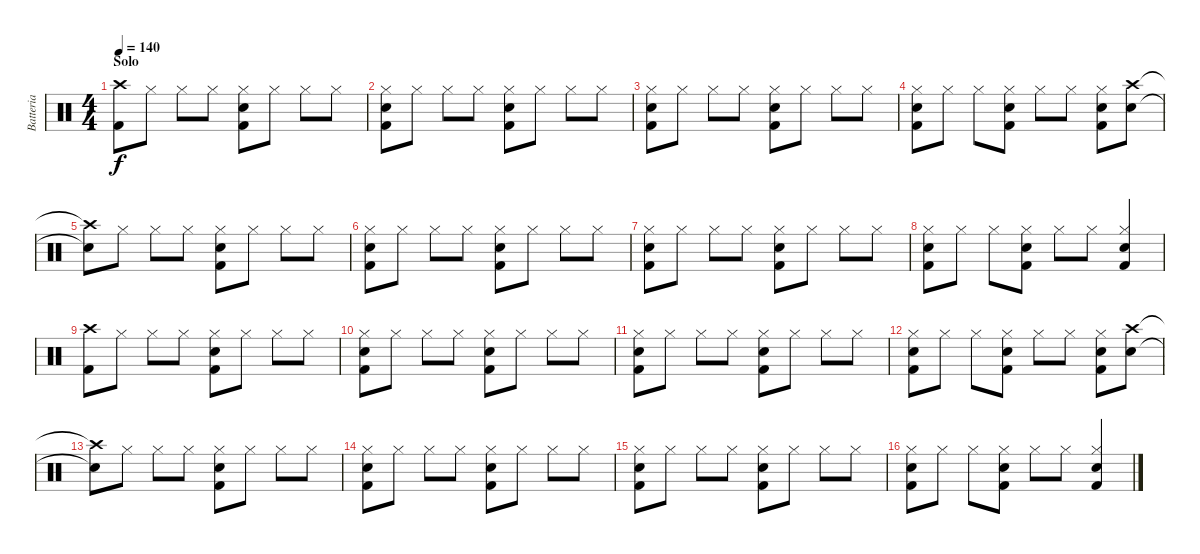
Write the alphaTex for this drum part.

\track ("Batteria" "Batteria") {instrument percussion}
\staff {score}
\articulation defaults
\ts (4 4)
\section ("" "Solo")
\tempo 140
\clef neutral
\ks c
("Crash high (hit)" "Kick (hit) 2").8{dy f} "Hi-Hat (closed)".8 "Hi-Hat (closed)".8 "Hi-Hat (closed)".8 ("Kick (hit) 2" "Hi-Hat (closed)" "Snare (hit) 2").8 "Hi-Hat (closed)".8 "Hi-Hat (closed)".8 "Hi-Hat (closed)".8 |
("Kick (hit) 2" "Hi-Hat (closed)" "Snare (hit) 2").8 "Hi-Hat (closed)".8 "Hi-Hat (closed)".8 "Hi-Hat (closed)".8 ("Kick (hit) 2" "Hi-Hat (closed)" "Snare (hit) 2").8 "Hi-Hat (closed)".8 "Hi-Hat (closed)".8 "Hi-Hat (closed)".8 |
("Kick (hit) 2" "Hi-Hat (closed)" "Snare (hit) 2").8 "Hi-Hat (closed)".8 "Hi-Hat (closed)".8 "Hi-Hat (closed)".8 ("Kick (hit) 2" "Hi-Hat (closed)" "Snare (hit) 2").8 "Hi-Hat (closed)".8 "Hi-Hat (closed)".8 "Hi-Hat (closed)".8 |
("Hi-Hat (closed)" "Snare (hit) 2" "Kick (hit) 2").8 "Hi-Hat (closed)".8 "Hi-Hat (closed)".8 ("Hi-Hat (closed)" "Snare (hit) 2" "Kick (hit) 2").8 "Hi-Hat (closed)".8 "Hi-Hat (closed)".8 ("Hi-Hat (closed)" "Snare (hit) 2" "Kick (hit) 2").8 ("Crash high (hit)" "Snare (hit) 2").8 |
("Crash high (hit)"{t} "Snare (hit) 2"{t}).8 "Hi-Hat (closed)".8 "Hi-Hat (closed)".8 "Hi-Hat (closed)".8 ("Kick (hit) 2" "Hi-Hat (closed)" "Snare (hit) 2").8 "Hi-Hat (closed)".8 "Hi-Hat (closed)".8 "Hi-Hat (closed)".8 |
("Hi-Hat (closed)" "Snare (hit) 2" "Kick (hit) 2").8 "Hi-Hat (closed)".8 "Hi-Hat (closed)".8 "Hi-Hat (closed)".8 ("Kick (hit) 2" "Snare (hit) 2" "Hi-Hat (closed)").8 "Hi-Hat (closed)".8 "Hi-Hat (closed)".8 "Hi-Hat (closed)".8 |
("Hi-Hat (closed)" "Snare (hit) 2" "Kick (hit) 2").8 "Hi-Hat (closed)".8 "Hi-Hat (closed)".8 "Hi-Hat (closed)".8 ("Kick (hit) 2" "Snare (hit) 2" "Hi-Hat (closed)").8 "Hi-Hat (closed)".8 "Hi-Hat (closed)".8 "Hi-Hat (closed)".8 |
("Hi-Hat (closed)" "Snare (hit) 2" "Kick (hit) 2").8 "Hi-Hat (closed)".8 "Hi-Hat (closed)".8 ("Hi-Hat (closed)" "Snare (hit) 2" "Kick (hit) 2").8 "Hi-Hat (closed)".8 "Hi-Hat (closed)".8 ("Hi-Hat (closed)" "Kick (hit) 2" "Snare (hit) 2").4 |
("Crash high (hit)" "Kick (hit) 2").8 "Hi-Hat (closed)".8 "Hi-Hat (closed)".8 "Hi-Hat (closed)".8 ("Kick (hit) 2" "Hi-Hat (closed)" "Snare (hit) 2").8 "Hi-Hat (closed)".8 "Hi-Hat (closed)".8 "Hi-Hat (closed)".8 |
("Kick (hit) 2" "Hi-Hat (closed)" "Snare (hit) 2").8 "Hi-Hat (closed)".8 "Hi-Hat (closed)".8 "Hi-Hat (closed)".8 ("Kick (hit) 2" "Hi-Hat (closed)" "Snare (hit) 2").8 "Hi-Hat (closed)".8 "Hi-Hat (closed)".8 "Hi-Hat (closed)".8 |
("Kick (hit) 2" "Hi-Hat (closed)" "Snare (hit) 2").8 "Hi-Hat (closed)".8 "Hi-Hat (closed)".8 "Hi-Hat (closed)".8 ("Kick (hit) 2" "Hi-Hat (closed)" "Snare (hit) 2").8 "Hi-Hat (closed)".8 "Hi-Hat (closed)".8 "Hi-Hat (closed)".8 |
("Hi-Hat (closed)" "Snare (hit) 2" "Kick (hit) 2").8 "Hi-Hat (closed)".8 "Hi-Hat (closed)".8 ("Hi-Hat (closed)" "Snare (hit) 2" "Kick (hit) 2").8 "Hi-Hat (closed)".8 "Hi-Hat (closed)".8 ("Hi-Hat (closed)" "Snare (hit) 2" "Kick (hit) 2").8 ("Crash high (hit)" "Snare (hit) 2").8 |
("Crash high (hit)"{t} "Snare (hit) 2"{t}).8 "Hi-Hat (closed)".8 "Hi-Hat (closed)".8 "Hi-Hat (closed)".8 ("Kick (hit) 2" "Hi-Hat (closed)" "Snare (hit) 2").8 "Hi-Hat (closed)".8 "Hi-Hat (closed)".8 "Hi-Hat (closed)".8 |
("Hi-Hat (closed)" "Snare (hit) 2" "Kick (hit) 2").8 "Hi-Hat (closed)".8 "Hi-Hat (closed)".8 "Hi-Hat (closed)".8 ("Kick (hit) 2" "Snare (hit) 2" "Hi-Hat (closed)").8 "Hi-Hat (closed)".8 "Hi-Hat (closed)".8 "Hi-Hat (closed)".8 |
("Hi-Hat (closed)" "Snare (hit) 2" "Kick (hit) 2").8 "Hi-Hat (closed)".8 "Hi-Hat (closed)".8 "Hi-Hat (closed)".8 ("Kick (hit) 2" "Snare (hit) 2" "Hi-Hat (closed)").8 "Hi-Hat (closed)".8 "Hi-Hat (closed)".8 "Hi-Hat (closed)".8 |
("Hi-Hat (closed)" "Snare (hit) 2" "Kick (hit) 2").8 "Hi-Hat (closed)".8 "Hi-Hat (closed)".8 ("Hi-Hat (closed)" "Snare (hit) 2" "Kick (hit) 2").8 "Hi-Hat (closed)".8 "Hi-Hat (closed)".8 ("Hi-Hat (closed)" "Kick (hit) 2" "Snare (hit) 2").4
